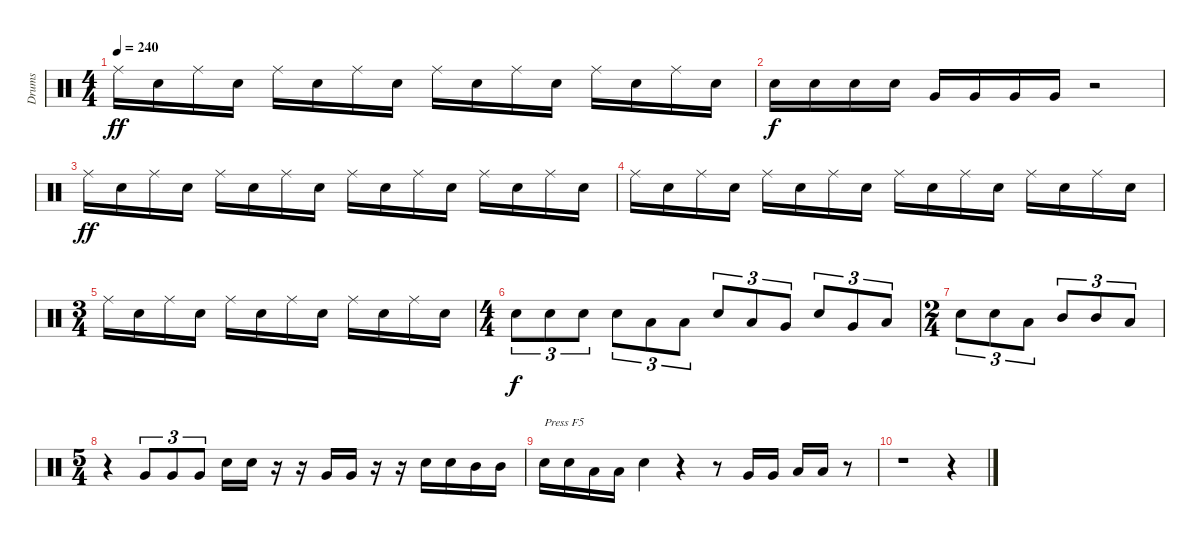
\track ("Drums" "Drums") {instrument percussion}
\staff {score}
\articulation defaults
\ts (4 4)
\tempo 240
\clef neutral
\ks c "Ride (middle)".16{dy ff} "Electric Snare (hit)".16 "Ride (middle)".16 "Electric Snare (hit)".16 "Ride (middle)".16 "Electric Snare (hit)".16 "Ride (middle)".16 "Electric Snare (hit)".16 "Ride (middle)".16 "Electric Snare (hit)".16 "Ride (middle)".16 "Electric Snare (hit)".16 "Ride (middle)".16 "Electric Snare (hit)".16 "Ride (middle)".16 "Electric Snare (hit)".16
|
"Electric Snare (hit)".16{dy f} "Electric Snare (hit)".16 "Electric Snare (hit)".16 "Electric Snare (hit)".16 "Very Low Tom (hit)".16 "Very Low Tom (hit)".16 "Very Low Tom (hit)".16 "Very Low Tom (hit)".16 r.2 |
"Ride (middle)".16{dy ff} "Electric Snare (hit)".16 "Ride (middle)".16 "Electric Snare (hit)".16 "Ride (middle)".16 "Electric Snare (hit)".16 "Ride (middle)".16 "Electric Snare (hit)".16 "Ride (middle)".16 "Electric Snare (hit)".16 "Ride (middle)".16 "Electric Snare (hit)".16 "Ride (middle)".16 "Electric Snare (hit)".16 "Ride (middle)".16 "Electric Snare (hit)".16 |
"Ride (middle)".16 "Electric Snare (hit)".16 "Ride (middle)".16 "Electric Snare (hit)".16 "Ride (middle)".16 "Electric Snare (hit)".16 "Ride (middle)".16 "Electric Snare (hit)".16 "Ride (middle)".16 "Electric Snare (hit)".16 "Ride (middle)".16 "Electric Snare (hit)".16 "Ride (middle)".16 "Electric Snare (hit)".16 "Ride (middle)".16 "Electric Snare (hit)".16 |
\ts (3 4)
"Ride (middle)".16 "Electric Snare (hit)".16 "Ride (middle)".16 "Electric Snare (hit)".16 "Ride (middle)".16 "Electric Snare (hit)".16 "Ride (middle)".16 "Electric Snare (hit)".16 "Ride (middle)".16 "Electric Snare (hit)".16 "Ride (middle)".16 "Electric Snare (hit)".16 |
\ts (4 4)
"Electric Snare (hit)".8{tu (3 2) dy f} "Electric Snare (hit)".8{tu (3 2)} "Electric Snare (hit)".8{tu (3 2)} "Electric Snare (hit)".8{tu (3 2)} "Low Tom (hit)".8{tu (3 2)} "Low Tom (hit)".8{tu (3 2)} "Electric Snare (hit)".8{tu (3 2)} "Low Tom (hit)".8{tu (3 2)} "Very Low Tom (hit)".8{tu (3 2)} "Electric Snare (hit)".8{tu (3 2)} "Very Low Tom (hit)".8{tu (3 2)} "Low Floor Tom (hit)".8{tu (3 2)} |
\ts (2 4)
"Electric Snare (hit)".8{tu (3 2)} "Electric Snare (hit)".8{tu (3 2)} "Low Tom (hit)".8{tu (3 2)} "Mid Tom (hit)".8{tu (3 2)} "Mid Tom (hit)".8{tu (3 2)} "Low Tom (hit)".8{tu (3 2)} |
\ts (5 4)
r.4 "Very Low Tom (hit)".8{tu (3 2)} "Very Low Tom (hit)".8{tu (3 2)} "Very Low Tom (hit)".8{tu (3 2)} "Electric Snare (hit)".16 "Electric Snare (hit)".16 r.16 r.16 "Very Low Tom (hit)".16 "Very Low Tom (hit)".16 r.16 r.16 "Electric Snare (hit)".16 "Electric Snare (hit)".16 "Mid Tom (hit)".16 "Mid Tom (hit)".16 |
"Electric Snare (hit)".16{txt "Press F5"} "Electric Snare (hit)".16 "Low Floor Tom (hit)".16 "Low Floor Tom (hit)".16 "Electric Snare (hit)".4 r.4 r.8 "Very Low Tom (hit)".16 "Very Low Tom (hit)".16 "Low Floor Tom (hit)".16 "Low Floor Tom (hit)".16 r.8 |
r.1 r.4
